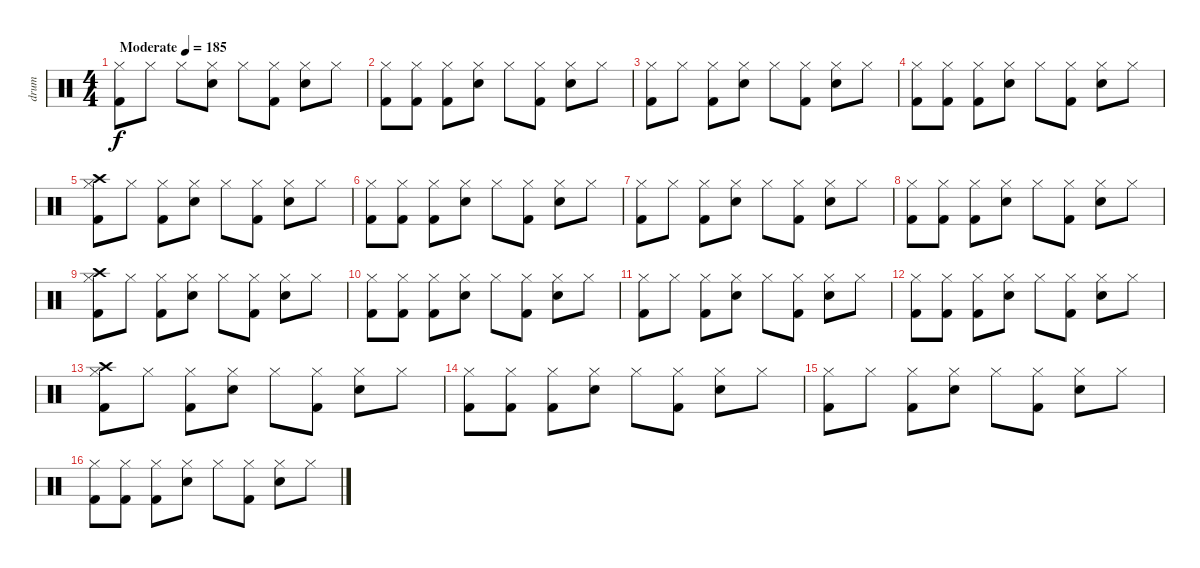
\track ("drum" "drum") {instrument percussion}
\staff {score}
\articulation defaults
\ts (4 4)
\tempo (185 "Moderate")
\clef neutral
\ks c
("Hi-Hat (closed)" "Kick (hit) 2").8{dy f} "Hi-Hat (closed)".8 "Hi-Hat (closed)".8 ("Hi-Hat (closed)" "Electric Snare (hit)").8 "Hi-Hat (closed)".8 ("Hi-Hat (closed)" "Kick (hit) 2").8 ("Hi-Hat (closed)" "Electric Snare (hit)").8 "Hi-Hat (closed)".8 |
("Hi-Hat (closed)" "Kick (hit) 2").8 ("Hi-Hat (closed)" "Kick (hit) 2").8 ("Hi-Hat (closed)" "Kick (hit) 2").8 ("Hi-Hat (closed)" "Electric Snare (hit)").8 "Hi-Hat (closed)".8 ("Hi-Hat (closed)" "Kick (hit) 2").8 ("Hi-Hat (closed)" "Electric Snare (hit)").8 "Hi-Hat (closed)".8 |
("Hi-Hat (closed)" "Kick (hit) 2").8 "Hi-Hat (closed)".8 ("Hi-Hat (closed)" "Kick (hit) 2").8 ("Hi-Hat (closed)" "Electric Snare (hit)").8 "Hi-Hat (closed)".8 ("Hi-Hat (closed)" "Kick (hit) 2").8 ("Hi-Hat (closed)" "Electric Snare (hit)").8 "Hi-Hat (closed)".8 |
("Hi-Hat (closed)" "Kick (hit) 2").8 ("Hi-Hat (closed)" "Kick (hit) 2").8 ("Hi-Hat (closed)" "Kick (hit) 2").8 ("Hi-Hat (closed)" "Electric Snare (hit)").8 "Hi-Hat (closed)".8 ("Hi-Hat (closed)" "Kick (hit) 2").8 ("Hi-Hat (closed)" "Electric Snare (hit)").8 "Hi-Hat (closed)".8 |
("Hi-Hat (closed)" "Crash high (hit)" "Kick (hit) 2").8 "Hi-Hat (closed)".8 ("Hi-Hat (closed)" "Kick (hit) 2").8 ("Hi-Hat (closed)" "Electric Snare (hit)").8 "Hi-Hat (closed)".8 ("Hi-Hat (closed)" "Kick (hit) 2").8 ("Hi-Hat (closed)" "Electric Snare (hit)").8 "Hi-Hat (closed)".8 |
("Hi-Hat (closed)" "Kick (hit) 2").8 ("Hi-Hat (closed)" "Kick (hit) 2").8 ("Hi-Hat (closed)" "Kick (hit) 2").8 ("Hi-Hat (closed)" "Electric Snare (hit)").8 "Hi-Hat (closed)".8 ("Hi-Hat (closed)" "Kick (hit) 2").8 ("Hi-Hat (closed)" "Electric Snare (hit)").8 "Hi-Hat (closed)".8 |
("Hi-Hat (closed)" "Kick (hit) 2").8 "Hi-Hat (closed)".8 ("Hi-Hat (closed)" "Kick (hit) 2").8 ("Hi-Hat (closed)" "Electric Snare (hit)").8 "Hi-Hat (closed)".8 ("Hi-Hat (closed)" "Kick (hit) 2").8 ("Hi-Hat (closed)" "Electric Snare (hit)").8 "Hi-Hat (closed)".8 |
("Hi-Hat (closed)" "Kick (hit) 2").8 ("Hi-Hat (closed)" "Kick (hit) 2").8 ("Hi-Hat (closed)" "Kick (hit) 2").8 ("Hi-Hat (closed)" "Electric Snare (hit)").8 "Hi-Hat (closed)".8 ("Hi-Hat (closed)" "Kick (hit) 2").8 ("Hi-Hat (closed)" "Electric Snare (hit)").8 "Hi-Hat (closed)".8 |
("Hi-Hat (closed)" "Crash high (hit)" "Kick (hit) 2").8 "Hi-Hat (closed)".8 ("Hi-Hat (closed)" "Kick (hit) 2").8 ("Hi-Hat (closed)" "Electric Snare (hit)").8 "Hi-Hat (closed)".8 ("Hi-Hat (closed)" "Kick (hit) 2").8 ("Hi-Hat (closed)" "Electric Snare (hit)").8 "Hi-Hat (closed)".8 |
("Hi-Hat (closed)" "Kick (hit) 2").8 ("Hi-Hat (closed)" "Kick (hit) 2").8 ("Hi-Hat (closed)" "Kick (hit) 2").8 ("Hi-Hat (closed)" "Electric Snare (hit)").8 "Hi-Hat (closed)".8 ("Hi-Hat (closed)" "Kick (hit) 2").8 ("Hi-Hat (closed)" "Electric Snare (hit)").8 "Hi-Hat (closed)".8 |
("Hi-Hat (closed)" "Kick (hit) 2").8 "Hi-Hat (closed)".8 ("Hi-Hat (closed)" "Kick (hit) 2").8 ("Hi-Hat (closed)" "Electric Snare (hit)").8 "Hi-Hat (closed)".8 ("Hi-Hat (closed)" "Kick (hit) 2").8 ("Hi-Hat (closed)" "Electric Snare (hit)").8 "Hi-Hat (closed)".8 |
("Hi-Hat (closed)" "Kick (hit) 2").8 ("Hi-Hat (closed)" "Kick (hit) 2").8 ("Hi-Hat (closed)" "Kick (hit) 2").8 ("Hi-Hat (closed)" "Electric Snare (hit)").8 "Hi-Hat (closed)".8 ("Hi-Hat (closed)" "Kick (hit) 2").8 ("Hi-Hat (closed)" "Electric Snare (hit)").8 "Hi-Hat (closed)".8 |
("Hi-Hat (closed)" "Crash high (hit)" "Kick (hit) 2").8 "Hi-Hat (closed)".8 ("Hi-Hat (closed)" "Kick (hit) 2").8 ("Hi-Hat (closed)" "Electric Snare (hit)").8 "Hi-Hat (closed)".8 ("Hi-Hat (closed)" "Kick (hit) 2").8 ("Hi-Hat (closed)" "Electric Snare (hit)").8 "Hi-Hat (closed)".8 |
("Hi-Hat (closed)" "Kick (hit) 2").8 ("Hi-Hat (closed)" "Kick (hit) 2").8 ("Hi-Hat (closed)" "Kick (hit) 2").8 ("Hi-Hat (closed)" "Electric Snare (hit)").8 "Hi-Hat (closed)".8 ("Hi-Hat (closed)" "Kick (hit) 2").8 ("Hi-Hat (closed)" "Electric Snare (hit)").8 "Hi-Hat (closed)".8 |
("Hi-Hat (closed)" "Kick (hit) 2").8 "Hi-Hat (closed)".8 ("Hi-Hat (closed)" "Kick (hit) 2").8 ("Hi-Hat (closed)" "Electric Snare (hit)").8 "Hi-Hat (closed)".8 ("Hi-Hat (closed)" "Kick (hit) 2").8 ("Hi-Hat (closed)" "Electric Snare (hit)").8 "Hi-Hat (closed)".8 |
("Hi-Hat (closed)" "Kick (hit) 2").8 ("Hi-Hat (closed)" "Kick (hit) 2").8 ("Hi-Hat (closed)" "Kick (hit) 2").8 ("Hi-Hat (closed)" "Electric Snare (hit)").8 "Hi-Hat (closed)".8 ("Hi-Hat (closed)" "Kick (hit) 2").8 ("Hi-Hat (closed)" "Electric Snare (hit)").8 "Hi-Hat (closed)".8
